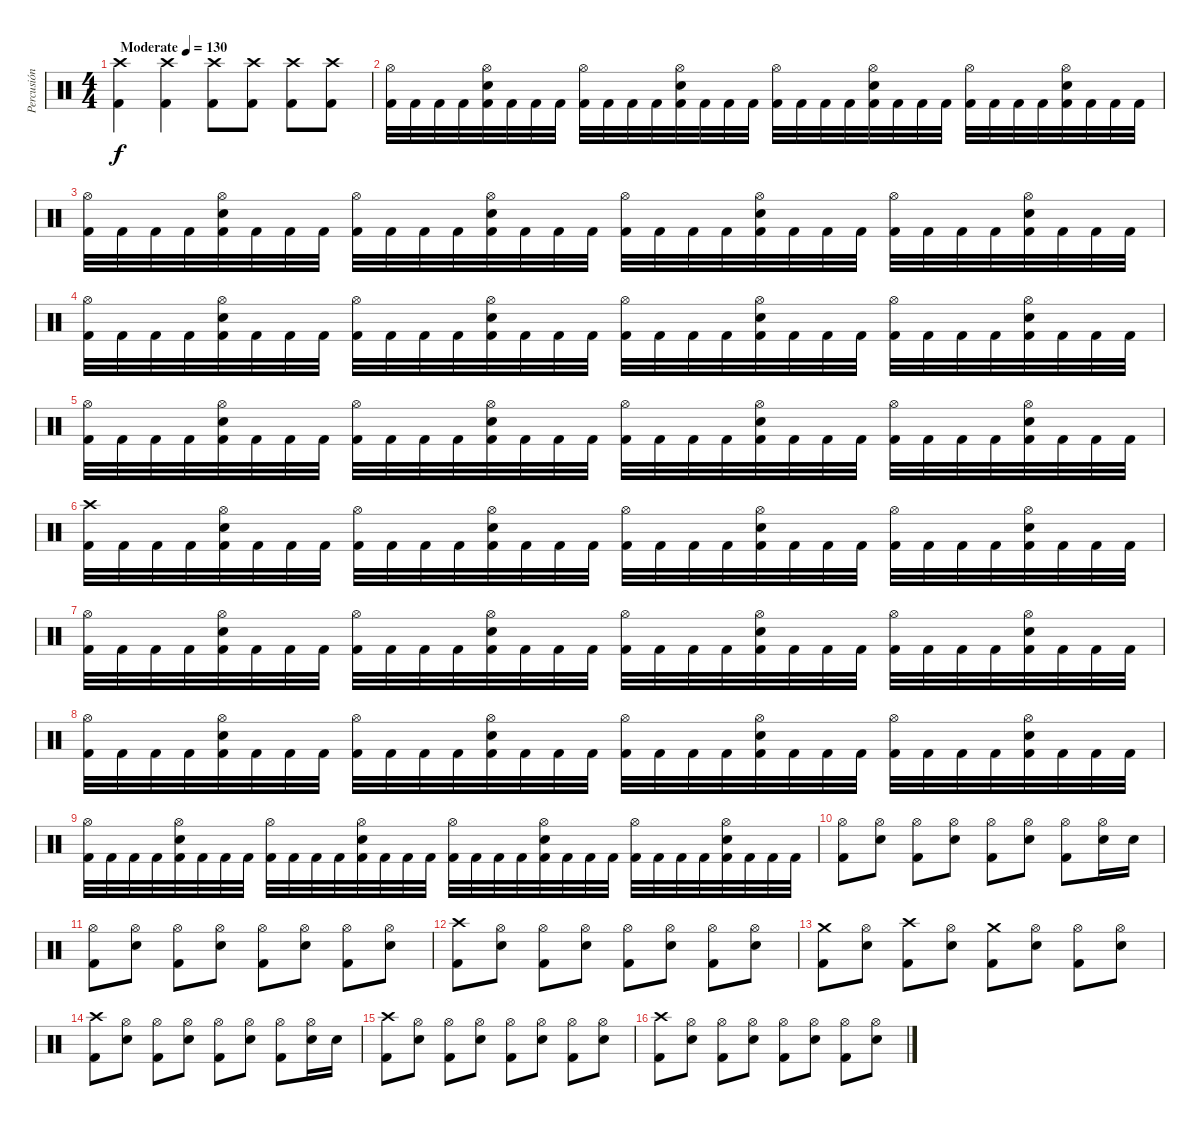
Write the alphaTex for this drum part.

\track ("Percusión" "Percusión") {instrument percussion}
\staff {score}
\articulation defaults
\ts (4 4)
\tempo (130 "Moderate")
\clef neutral
\ks c
("Crash high (hit)" "Kick (hit) 2").4{dy f} ("Crash high (hit)" "Kick (hit) 2").4 ("Crash high (hit)" "Kick (hit) 2").8 ("Crash high (hit)" "Kick (hit) 2").8 ("Crash high (hit)" "Kick (hit) 2").8 ("Crash high (hit)" "Kick (hit) 2").8 |
("Hi-Hat (open)" "Kick (hit) 2").32 "Kick (hit) 2".32 "Kick (hit) 2".32 "Kick (hit) 2".32 ("Hi-Hat (open)" "Snare (hit) 2" "Kick (hit) 2").32 "Kick (hit) 2".32 "Kick (hit) 2".32 "Kick (hit) 2".32 ("Hi-Hat (open)" "Kick (hit) 2").32 "Kick (hit) 2".32 "Kick (hit) 2".32 "Kick (hit) 2".32 ("Hi-Hat (open)" "Snare (hit) 2" "Kick (hit) 2").32 "Kick (hit) 2".32 "Kick (hit) 2".32 "Kick (hit) 2".32 ("Hi-Hat (open)" "Kick (hit) 2").32 "Kick (hit) 2".32 "Kick (hit) 2".32 "Kick (hit) 2".32 ("Hi-Hat (open)" "Snare (hit) 2" "Kick (hit) 2").32 "Kick (hit) 2".32 "Kick (hit) 2".32 "Kick (hit) 2".32 ("Hi-Hat (open)" "Kick (hit) 2").32 "Kick (hit) 2".32 "Kick (hit) 2".32 "Kick (hit) 2".32 ("Hi-Hat (open)" "Snare (hit) 2" "Kick (hit) 2").32 "Kick (hit) 2".32 "Kick (hit) 2".32 "Kick (hit) 2".32 |
("Hi-Hat (open)" "Kick (hit) 2").32 "Kick (hit) 2".32 "Kick (hit) 2".32 "Kick (hit) 2".32 ("Hi-Hat (open)" "Snare (hit) 2" "Kick (hit) 2").32 "Kick (hit) 2".32 "Kick (hit) 2".32 "Kick (hit) 2".32 ("Hi-Hat (open)" "Kick (hit) 2").32 "Kick (hit) 2".32 "Kick (hit) 2".32 "Kick (hit) 2".32 ("Hi-Hat (open)" "Snare (hit) 2" "Kick (hit) 2").32 "Kick (hit) 2".32 "Kick (hit) 2".32 "Kick (hit) 2".32 ("Hi-Hat (open)" "Kick (hit) 2").32 "Kick (hit) 2".32 "Kick (hit) 2".32 "Kick (hit) 2".32 ("Hi-Hat (open)" "Snare (hit) 2" "Kick (hit) 2").32 "Kick (hit) 2".32 "Kick (hit) 2".32 "Kick (hit) 2".32 ("Hi-Hat (open)" "Kick (hit) 2").32 "Kick (hit) 2".32 "Kick (hit) 2".32 "Kick (hit) 2".32 ("Hi-Hat (open)" "Snare (hit) 2" "Kick (hit) 2").32 "Kick (hit) 2".32 "Kick (hit) 2".32 "Kick (hit) 2".32 |
("Hi-Hat (open)" "Kick (hit) 2").32 "Kick (hit) 2".32 "Kick (hit) 2".32 "Kick (hit) 2".32 ("Hi-Hat (open)" "Snare (hit) 2" "Kick (hit) 2").32 "Kick (hit) 2".32 "Kick (hit) 2".32 "Kick (hit) 2".32 ("Hi-Hat (open)" "Kick (hit) 2").32 "Kick (hit) 2".32 "Kick (hit) 2".32 "Kick (hit) 2".32 ("Hi-Hat (open)" "Snare (hit) 2" "Kick (hit) 2").32 "Kick (hit) 2".32 "Kick (hit) 2".32 "Kick (hit) 2".32 ("Hi-Hat (open)" "Kick (hit) 2").32 "Kick (hit) 2".32 "Kick (hit) 2".32 "Kick (hit) 2".32 ("Hi-Hat (open)" "Snare (hit) 2" "Kick (hit) 2").32 "Kick (hit) 2".32 "Kick (hit) 2".32 "Kick (hit) 2".32 ("Hi-Hat (open)" "Kick (hit) 2").32 "Kick (hit) 2".32 "Kick (hit) 2".32 "Kick (hit) 2".32 ("Hi-Hat (open)" "Snare (hit) 2" "Kick (hit) 2").32 "Kick (hit) 2".32 "Kick (hit) 2".32 "Kick (hit) 2".32 |
("Hi-Hat (open)" "Kick (hit) 2").32 "Kick (hit) 2".32 "Kick (hit) 2".32 "Kick (hit) 2".32 ("Hi-Hat (open)" "Snare (hit) 2" "Kick (hit) 2").32 "Kick (hit) 2".32 "Kick (hit) 2".32 "Kick (hit) 2".32 ("Hi-Hat (open)" "Kick (hit) 2").32 "Kick (hit) 2".32 "Kick (hit) 2".32 "Kick (hit) 2".32 ("Hi-Hat (open)" "Snare (hit) 2" "Kick (hit) 2").32 "Kick (hit) 2".32 "Kick (hit) 2".32 "Kick (hit) 2".32 ("Hi-Hat (open)" "Kick (hit) 2").32 "Kick (hit) 2".32 "Kick (hit) 2".32 "Kick (hit) 2".32 ("Hi-Hat (open)" "Snare (hit) 2" "Kick (hit) 2").32 "Kick (hit) 2".32 "Kick (hit) 2".32 "Kick (hit) 2".32 ("Hi-Hat (open)" "Kick (hit) 2").32 "Kick (hit) 2".32 "Kick (hit) 2".32 "Kick (hit) 2".32 ("Hi-Hat (open)" "Snare (hit) 2" "Kick (hit) 2").32 "Kick (hit) 2".32 "Kick (hit) 2".32 "Kick (hit) 2".32 |
("Crash high (hit)" "Kick (hit) 2").32 "Kick (hit) 2".32 "Kick (hit) 2".32 "Kick (hit) 2".32 ("Hi-Hat (open)" "Snare (hit) 2" "Kick (hit) 2").32 "Kick (hit) 2".32 "Kick (hit) 2".32 "Kick (hit) 2".32 ("Hi-Hat (open)" "Kick (hit) 2").32 "Kick (hit) 2".32 "Kick (hit) 2".32 "Kick (hit) 2".32 ("Hi-Hat (open)" "Snare (hit) 2" "Kick (hit) 2").32 "Kick (hit) 2".32 "Kick (hit) 2".32 "Kick (hit) 2".32 ("Hi-Hat (open)" "Kick (hit) 2").32 "Kick (hit) 2".32 "Kick (hit) 2".32 "Kick (hit) 2".32 ("Hi-Hat (open)" "Snare (hit) 2" "Kick (hit) 2").32 "Kick (hit) 2".32 "Kick (hit) 2".32 "Kick (hit) 2".32 ("Hi-Hat (open)" "Kick (hit) 2").32 "Kick (hit) 2".32 "Kick (hit) 2".32 "Kick (hit) 2".32 ("Hi-Hat (open)" "Snare (hit) 2" "Kick (hit) 2").32 "Kick (hit) 2".32 "Kick (hit) 2".32 "Kick (hit) 2".32 |
("Hi-Hat (open)" "Kick (hit) 2").32 "Kick (hit) 2".32 "Kick (hit) 2".32 "Kick (hit) 2".32 ("Hi-Hat (open)" "Snare (hit) 2" "Kick (hit) 2").32 "Kick (hit) 2".32 "Kick (hit) 2".32 "Kick (hit) 2".32 ("Hi-Hat (open)" "Kick (hit) 2").32 "Kick (hit) 2".32 "Kick (hit) 2".32 "Kick (hit) 2".32 ("Hi-Hat (open)" "Snare (hit) 2" "Kick (hit) 2").32 "Kick (hit) 2".32 "Kick (hit) 2".32 "Kick (hit) 2".32 ("Hi-Hat (open)" "Kick (hit) 2").32 "Kick (hit) 2".32 "Kick (hit) 2".32 "Kick (hit) 2".32 ("Hi-Hat (open)" "Snare (hit) 2" "Kick (hit) 2").32 "Kick (hit) 2".32 "Kick (hit) 2".32 "Kick (hit) 2".32 ("Hi-Hat (open)" "Kick (hit) 2").32 "Kick (hit) 2".32 "Kick (hit) 2".32 "Kick (hit) 2".32 ("Hi-Hat (open)" "Snare (hit) 2" "Kick (hit) 2").32 "Kick (hit) 2".32 "Kick (hit) 2".32 "Kick (hit) 2".32 |
("Hi-Hat (open)" "Kick (hit) 2").32 "Kick (hit) 2".32 "Kick (hit) 2".32 "Kick (hit) 2".32 ("Hi-Hat (open)" "Snare (hit) 2" "Kick (hit) 2").32 "Kick (hit) 2".32 "Kick (hit) 2".32 "Kick (hit) 2".32 ("Hi-Hat (open)" "Kick (hit) 2").32 "Kick (hit) 2".32 "Kick (hit) 2".32 "Kick (hit) 2".32 ("Hi-Hat (open)" "Snare (hit) 2" "Kick (hit) 2").32 "Kick (hit) 2".32 "Kick (hit) 2".32 "Kick (hit) 2".32 ("Hi-Hat (open)" "Kick (hit) 2").32 "Kick (hit) 2".32 "Kick (hit) 2".32 "Kick (hit) 2".32 ("Hi-Hat (open)" "Snare (hit) 2" "Kick (hit) 2").32 "Kick (hit) 2".32 "Kick (hit) 2".32 "Kick (hit) 2".32 ("Hi-Hat (open)" "Kick (hit) 2").32 "Kick (hit) 2".32 "Kick (hit) 2".32 "Kick (hit) 2".32 ("Hi-Hat (open)" "Snare (hit) 2" "Kick (hit) 2").32 "Kick (hit) 2".32 "Kick (hit) 2".32 "Kick (hit) 2".32 |
("Hi-Hat (open)" "Kick (hit) 2").32 "Kick (hit) 2".32 "Kick (hit) 2".32 "Kick (hit) 2".32 ("Hi-Hat (open)" "Snare (hit) 2" "Kick (hit) 2").32 "Kick (hit) 2".32 "Kick (hit) 2".32 "Kick (hit) 2".32 ("Hi-Hat (open)" "Kick (hit) 2").32 "Kick (hit) 2".32 "Kick (hit) 2".32 "Kick (hit) 2".32 ("Hi-Hat (open)" "Snare (hit) 2" "Kick (hit) 2").32 "Kick (hit) 2".32 "Kick (hit) 2".32 "Kick (hit) 2".32 ("Hi-Hat (open)" "Kick (hit) 2").32 "Kick (hit) 2".32 "Kick (hit) 2".32 "Kick (hit) 2".32 ("Hi-Hat (open)" "Snare (hit) 2" "Kick (hit) 2").32 "Kick (hit) 2".32 "Kick (hit) 2".32 "Kick (hit) 2".32 ("Hi-Hat (open)" "Kick (hit) 2").32 "Kick (hit) 2".32 "Kick (hit) 2".32 "Kick (hit) 2".32 ("Hi-Hat (open)" "Snare (hit) 2" "Kick (hit) 2").32 "Kick (hit) 2".32 "Kick (hit) 2".32 "Kick (hit) 2".32 |
("Hi-Hat (open)" "Kick (hit) 2").8 ("Hi-Hat (open)" "Snare (hit) 2").8 ("Hi-Hat (open)" "Kick (hit) 2").8 ("Hi-Hat (open)" "Snare (hit) 2").8 ("Hi-Hat (open)" "Kick (hit) 2").8 ("Hi-Hat (open)" "Snare (hit) 2").8 ("Hi-Hat (open)" "Kick (hit) 2").8 ("Hi-Hat (open)" "Snare (hit) 2").16 "Snare (hit) 2".16 |
("Hi-Hat (open)" "Kick (hit) 2").8 ("Hi-Hat (open)" "Snare (hit) 2").8 ("Hi-Hat (open)" "Kick (hit) 2").8 ("Hi-Hat (open)" "Snare (hit) 2").8 ("Hi-Hat (open)" "Kick (hit) 2").8 ("Hi-Hat (open)" "Snare (hit) 2").8 ("Hi-Hat (open)" "Kick (hit) 2").8 ("Hi-Hat (open)" "Snare (hit) 2").8 |
("Crash high (hit)" "Kick (hit) 2").8 ("Hi-Hat (open)" "Snare (hit) 2").8 ("Hi-Hat (open)" "Kick (hit) 2").8 ("Hi-Hat (open)" "Snare (hit) 2").8 ("Hi-Hat (open)" "Kick (hit) 2").8 ("Hi-Hat (open)" "Snare (hit) 2").8 ("Hi-Hat (open)" "Kick (hit) 2").8 ("Hi-Hat (open)" "Snare (hit) 2").8 |
("Crash medium (hit)" "Kick (hit) 2").8 ("Hi-Hat (open)" "Snare (hit) 2").8 ("Crash high (hit)" "Kick (hit) 2").8 ("Hi-Hat (open)" "Snare (hit) 2").8 ("Crash medium (hit)" "Kick (hit) 2").8 ("Hi-Hat (open)" "Snare (hit) 2").8 ("Hi-Hat (open)" "Kick (hit) 2").8 ("Hi-Hat (open)" "Snare (hit) 2").8 |
("Crash high (hit)" "Kick (hit) 2").8 ("Hi-Hat (open)" "Snare (hit) 2").8 ("Hi-Hat (open)" "Kick (hit) 2").8 ("Hi-Hat (open)" "Snare (hit) 2").8 ("Hi-Hat (open)" "Kick (hit) 2").8 ("Hi-Hat (open)" "Snare (hit) 2").8 ("Hi-Hat (open)" "Kick (hit) 2").8 ("Hi-Hat (open)" "Snare (hit) 2").16 "Snare (hit) 2".16 |
("Crash high (hit)" "Kick (hit) 2").8 ("Hi-Hat (open)" "Snare (hit) 2").8 ("Hi-Hat (open)" "Kick (hit) 2").8 ("Hi-Hat (open)" "Snare (hit) 2").8 ("Hi-Hat (open)" "Kick (hit) 2").8 ("Hi-Hat (open)" "Snare (hit) 2").8 ("Hi-Hat (open)" "Kick (hit) 2").8 ("Hi-Hat (open)" "Snare (hit) 2").8 |
("Crash high (hit)" "Kick (hit) 2").8 ("Hi-Hat (open)" "Snare (hit) 2").8 ("Hi-Hat (open)" "Kick (hit) 2").8 ("Hi-Hat (open)" "Snare (hit) 2").8 ("Hi-Hat (open)" "Kick (hit) 2").8 ("Hi-Hat (open)" "Snare (hit) 2").8 ("Hi-Hat (open)" "Kick (hit) 2").8 ("Hi-Hat (open)" "Snare (hit) 2").8
